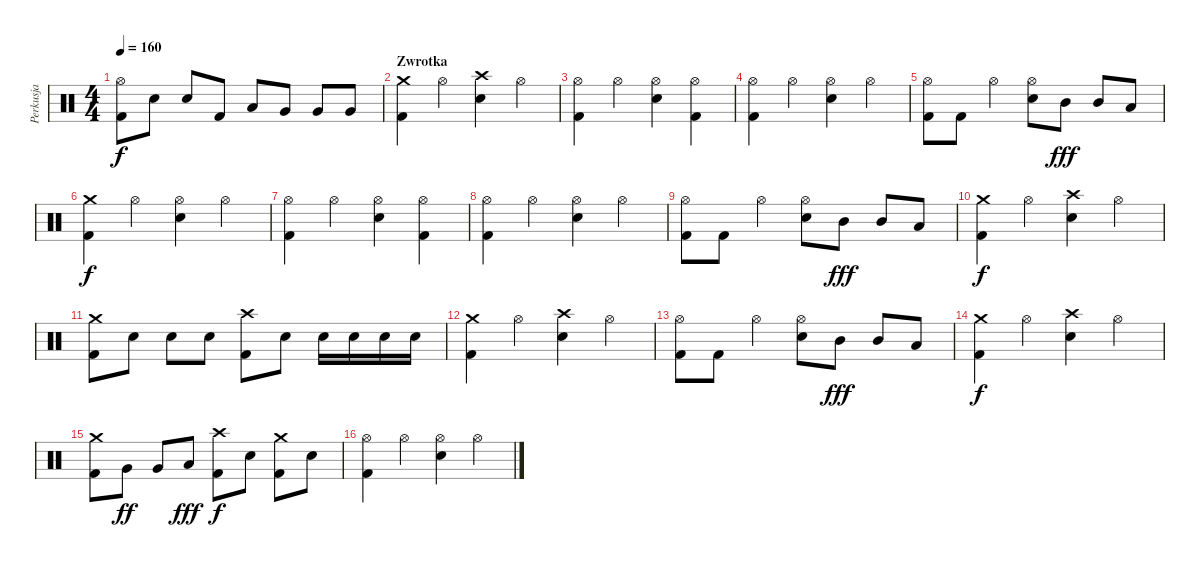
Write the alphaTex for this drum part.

\track ("Perkusja" "Perkusja") {instrument percussion}
\staff {score}
\articulation defaults
\ts (4 4)
\tempo 160
\clef neutral
\ks c
("Hi-Hat (open)" "Kick (hit) 2").8{dy f} "Snare (hit) 2".8 "Snare (hit) 2".8 "Kick (hit) 2".8 "Low Tom (hit)".8 "Very Low Tom (hit)".8 "Very Low Tom (hit)".8 "Very Low Tom (hit)".8 |
\section ("" "Zwrotka")
("Crash medium (hit)" "Kick (hit) 2").4 "Hi-Hat (open)".4 ("Crash high (hit)" "Snare (hit) 2").4 "Hi-Hat (open)".4 |
("Hi-Hat (open)" "Kick (hit) 2").4 "Hi-Hat (open)".4 ("Hi-Hat (open)" "Snare (hit) 2").4 ("Hi-Hat (open)" "Kick (hit) 2").4 |
("Hi-Hat (open)" "Kick (hit) 2").4 "Hi-Hat (open)".4 ("Hi-Hat (open)" "Snare (hit) 2").4 "Hi-Hat (open)".4 |
("Hi-Hat (open)" "Kick (hit) 2").8 "Kick (hit) 2".8 "Hi-Hat (open)".4 ("Hi-Hat (open)" "Snare (hit) 2").8 "Mid Tom (hit)".8{dy fff} "Mid Tom (hit)".8 "Low Tom (hit)".8 |
("Crash medium (hit)" "Kick (hit) 2").4{dy f} "Hi-Hat (open)".4 ("Hi-Hat (open)" "Snare (hit) 2").4 "Hi-Hat (open)".4 |
("Hi-Hat (open)" "Kick (hit) 2").4 "Hi-Hat (open)".4 ("Hi-Hat (open)" "Snare (hit) 2").4 ("Hi-Hat (open)" "Kick (hit) 2").4 |
("Hi-Hat (open)" "Kick (hit) 2").4 "Hi-Hat (open)".4 ("Hi-Hat (open)" "Snare (hit) 2").4 "Hi-Hat (open)".4 |
("Hi-Hat (open)" "Kick (hit) 2").8 "Kick (hit) 2".8 "Hi-Hat (open)".4 ("Hi-Hat (open)" "Snare (hit) 2").8 "Mid Tom (hit)".8{dy fff} "Mid Tom (hit)".8 "Low Tom (hit)".8 |
("Crash medium (hit)" "Kick (hit) 2").4{dy f} "Hi-Hat (open)".4 ("Crash high (hit)" "Snare (hit) 2").4 "Hi-Hat (open)".4 |
("Crash medium (hit)" "Kick (hit) 2").8 "Snare (hit) 2".8 "Snare (hit) 2".8 "Snare (hit) 2".8 ("Crash high (hit)" "Kick (hit) 2").8 "Snare (hit) 2".8 "Snare (hit) 2".16 "Snare (hit) 2".16 "Snare (hit) 2".16 "Snare (hit) 2".16 |
("Crash medium (hit)" "Kick (hit) 2").4 "Hi-Hat (open)".4 ("Crash high (hit)" "Snare (hit) 2").4 "Hi-Hat (open)".4 |
("Hi-Hat (open)" "Kick (hit) 2").8 "Kick (hit) 2".8 "Hi-Hat (open)".4 ("Hi-Hat (open)" "Snare (hit) 2").8 "Mid Tom (hit)".8{dy fff} "Mid Tom (hit)".8 "Low Tom (hit)".8 |
("Crash medium (hit)" "Kick (hit) 2").4{dy f} "Hi-Hat (open)".4 ("Crash high (hit)" "Snare (hit) 2").4 "Hi-Hat (open)".4 |
("Crash medium (hit)" "Kick (hit) 2").8 "Very Low Tom (hit)".8{dy ff} "Very Low Tom (hit)".8 "Low Floor Tom (hit)".8{dy fff} ("Crash high (hit)" "Kick (hit) 2").8{dy f} "Snare (hit) 2".8 ("Crash medium (hit)" "Kick (hit) 2").8 "Snare (hit) 2".8 |
("Hi-Hat (open)" "Kick (hit) 2").4 "Hi-Hat (open)".4 ("Hi-Hat (open)" "Snare (hit) 2").4 "Hi-Hat (open)".4
